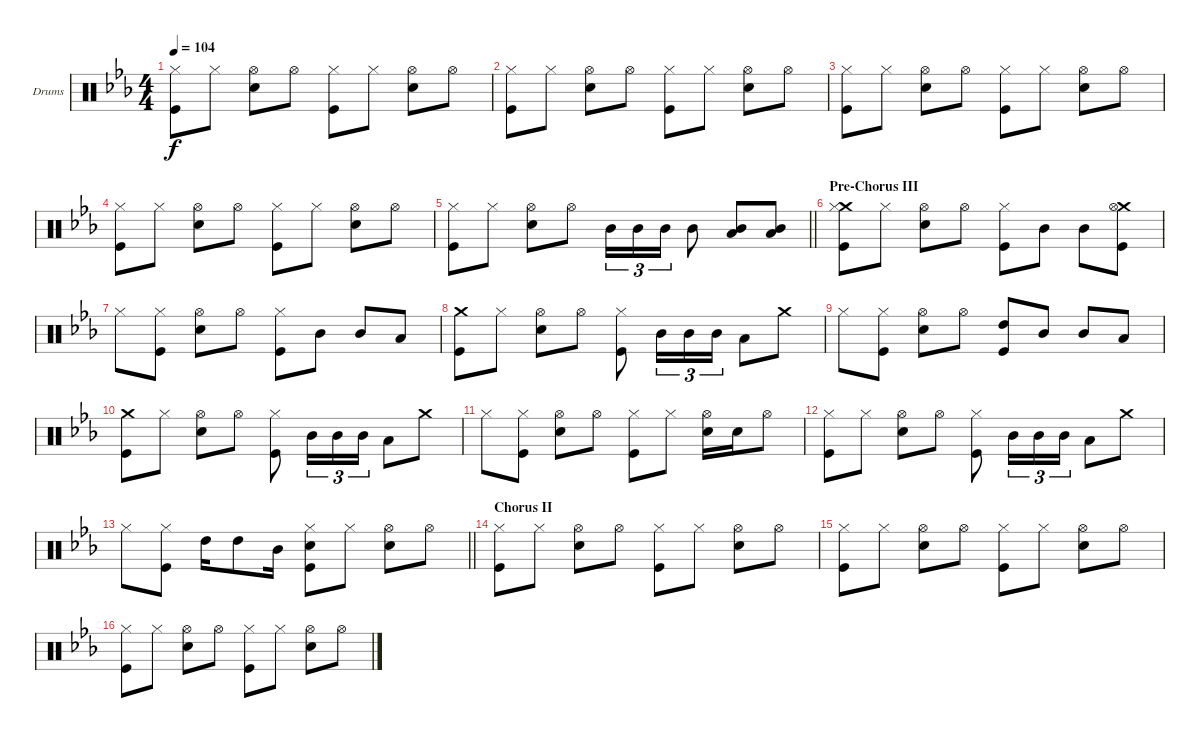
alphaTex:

\bracketExtendMode groupsimilarinstruments
\firstSystemTrackNameOrientation horizontal
\otherSystemsTrackNameOrientation horizontal
\track ("Drumkit" "Drums") {instrument percussion}
\staff {score}
\articulation defaults
\ts (4 4)
\tempo 104
\clef neutral
\ks eb
("Hi-Hat (closed)" "Kick (hit)").8{dy f} "Hi-Hat (closed)".8 ("Hi-Hat (open)" "Snare (hit) 2").8 "Hi-Hat (open)".8 ("Hi-Hat (closed)" "Kick (hit)").8 "Hi-Hat (closed)".8 ("Hi-Hat (open)" "Snare (hit) 2").8 "Hi-Hat (open)".8 |
("Hi-Hat (closed)" "Kick (hit)").8 "Hi-Hat (closed)".8 ("Hi-Hat (open)" "Snare (hit) 2").8 "Hi-Hat (open)".8 ("Hi-Hat (closed)" "Kick (hit)").8 "Hi-Hat (closed)".8 ("Hi-Hat (open)" "Snare (hit) 2").8 "Hi-Hat (open)".8 |
("Hi-Hat (closed)" "Kick (hit)").8 "Hi-Hat (closed)".8 ("Hi-Hat (open)" "Snare (hit) 2").8 "Hi-Hat (open)".8 ("Hi-Hat (closed)" "Kick (hit)").8 "Hi-Hat (closed)".8 ("Hi-Hat (open)" "Snare (hit) 2").8 "Hi-Hat (open)".8 |
("Hi-Hat (closed)" "Kick (hit)").8 "Hi-Hat (closed)".8 ("Hi-Hat (open)" "Snare (hit) 2").8 "Hi-Hat (open)".8 ("Hi-Hat (closed)" "Kick (hit)").8 "Hi-Hat (closed)".8 ("Hi-Hat (open)" "Snare (hit) 2").8 "Hi-Hat (open)".8 |
\barLineRight lightlight
("Hi-Hat (closed)" "Kick (hit)").8 "Hi-Hat (closed)".8 ("Hi-Hat (open)" "Snare (hit) 2").8 "Hi-Hat (open)".8 "Mid Tom (hit)".16{tu (3 2)} "Mid Tom (hit)".16{tu (3 2)} "Mid Tom (hit)".16{tu (3 2)} "Mid Tom (hit)".8 ("Mid Tom (hit)" "Low Tom (hit)").8 ("Mid Tom (hit)" "Low Tom (hit)").8 |
\section ("" "Pre-Chorus III")
("Crash medium (hit)" "Hi-Hat (closed)" "Kick (hit)").8 "Hi-Hat (closed)".8 ("Hi-Hat (open)" "Snare (hit) 2").8 "Hi-Hat (open)".8 ("Hi-Hat (closed)" "Kick (hit)").8 "Mid Tom (hit)".8 "Mid Tom (hit)".8 ("Crash medium (hit)" "Hi-Hat (open)" "Kick (hit)").8 |
"Hi-Hat (closed)".8 ("Hi-Hat (closed)" "Kick (hit)").8 ("Hi-Hat (open)" "Snare (hit) 2").8 "Hi-Hat (open)".8 ("Hi-Hat (closed)" "Kick (hit)").8 "Mid Tom (hit)".8 "Mid Tom (hit)".8 "Low Tom (hit)".8 |
("Crash medium (hit)" "Kick (hit)").8 "Hi-Hat (closed)".8 ("Hi-Hat (open)" "Snare (hit) 2").8 "Hi-Hat (open)".8 ("Hi-Hat (closed)" "Kick (hit)").8 "Mid Tom (hit)".16{tu (3 2)} "Mid Tom (hit)".16{tu (3 2)} "Mid Tom (hit)".16{tu (3 2)} "Low Tom (hit)".8 "Crash medium (hit)".8 |
"Hi-Hat (closed)".8 ("Hi-Hat (closed)" "Kick (hit)").8 ("Hi-Hat (open)" "Snare (hit) 2").8 "Hi-Hat (open)".8 ("High Tom (hit)" "Kick (hit)").8 "Mid Tom (hit)".8 "Mid Tom (hit)".8 "Low Tom (hit)".8 |
("Crash medium (hit)" "Kick (hit)").8 "Hi-Hat (closed)".8 ("Hi-Hat (open)" "Snare (hit) 2").8 "Hi-Hat (open)".8 ("Hi-Hat (closed)" "Kick (hit)").8 "Mid Tom (hit)".16{tu (3 2)} "Mid Tom (hit)".16{tu (3 2)} "Mid Tom (hit)".16{tu (3 2)} "Low Tom (hit)".8 "Crash medium (hit)".8 |
"Hi-Hat (closed)".8 ("Hi-Hat (closed)" "Kick (hit)").8 ("Hi-Hat (open)" "Snare (hit) 2").8 "Hi-Hat (open)".8 ("Hi-Hat (closed)" "Kick (hit)").8 "Hi-Hat (closed)".8 ("Hi-Hat (open)" "Snare (hit) 2").16 "Snare (hit) 2".16 "Hi-Hat (open)".8 |
("Hi-Hat (closed)" "Kick (hit)").8 "Hi-Hat (closed)".8 ("Hi-Hat (open)" "Snare (hit) 2").8 "Hi-Hat (open)".8 ("Hi-Hat (closed)" "Kick (hit)").8 "Mid Tom (hit)".16{tu (3 2)} "Mid Tom (hit)".16{tu (3 2)} "Mid Tom (hit)".16{tu (3 2)} "Low Tom (hit)".8 "Crash medium (hit)".8 |
\barLineRight lightlight "Hi-Hat (closed)".8
("Hi-Hat (closed)" "Kick (hit)").8 "High Tom (hit)".16 "High Tom (hit)".8 "Mid Tom (hit)".16 ("Hi-Hat (closed)" "Snare (hit) 2" "Kick (hit)").8 "Hi-Hat (closed)".8 ("Hi-Hat (open)" "Snare (hit) 2").8 "Hi-Hat (open)".8 |
\section ("" "Chorus II")
("Hi-Hat (closed)" "Kick (hit)").8 "Hi-Hat (closed)".8 ("Hi-Hat (open)" "Snare (hit) 2").8 "Hi-Hat (open)".8 ("Hi-Hat (closed)" "Kick (hit)").8 "Hi-Hat (closed)".8 ("Hi-Hat (open)" "Snare (hit) 2").8 "Hi-Hat (open)".8 |
("Hi-Hat (closed)" "Kick (hit)").8 "Hi-Hat (closed)".8 ("Hi-Hat (open)" "Snare (hit) 2").8 "Hi-Hat (open)".8 ("Hi-Hat (closed)" "Kick (hit)").8 "Hi-Hat (closed)".8 ("Hi-Hat (open)" "Snare (hit) 2").8 "Hi-Hat (open)".8 |
("Hi-Hat (closed)" "Kick (hit)").8 "Hi-Hat (closed)".8 ("Hi-Hat (open)" "Snare (hit) 2").8 "Hi-Hat (open)".8 ("Hi-Hat (closed)" "Kick (hit)").8 "Hi-Hat (closed)".8 ("Hi-Hat (open)" "Snare (hit) 2").8 "Hi-Hat (open)".8
